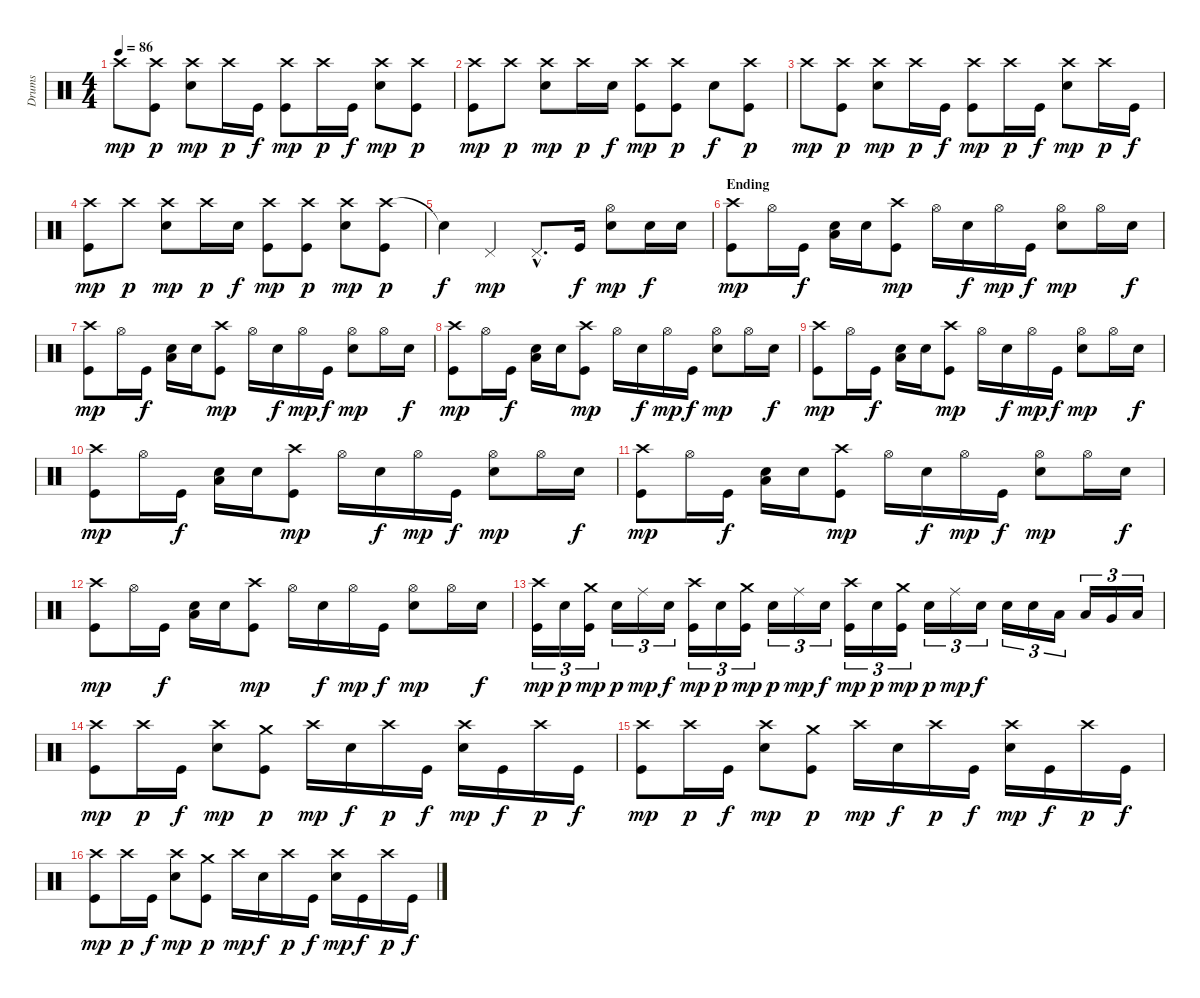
\track ("Drums" "Drums") {instrument percussion}
\staff {score}
\articulation defaults
\ts (4 4)
\tempo 86
\clef neutral
\ks c "Crash high (hit)".8{dy mp}
("Crash high (hit)" "Kick (hit)").8{dy p} ("Crash high (hit)" "Electric Snare (hit)").8{dy mp} "Crash high (hit)".16{dy p} "Kick (hit)".16{dy f} ("Crash high (hit)" "Kick (hit)").8{dy mp} "Crash high (hit)".16{dy p} "Kick (hit)".16{dy f} ("Crash high (hit)" "Electric Snare (hit)").8{dy mp} ("Crash high (hit)" "Kick (hit)").8{dy p} |
("Crash high (hit)" "Kick (hit)").8{dy mp} "Crash high (hit)".8{dy p} ("Crash high (hit)" "Electric Snare (hit)").8{dy mp} "Crash high (hit)".16{dy p} "Electric Snare (hit)".16{dy f} ("Crash high (hit)" "Kick (hit)").8{dy mp} ("Crash high (hit)" "Kick (hit)").8{dy p} "Electric Snare (hit)".8{dy f} ("Crash high (hit)" "Kick (hit)").8{dy p} |
"Crash high (hit)".8{dy mp} ("Crash high (hit)" "Kick (hit)").8{dy p} ("Crash high (hit)" "Electric Snare (hit)").8{dy mp} "Crash high (hit)".16{dy p} "Kick (hit)".16{dy f} ("Crash high (hit)" "Kick (hit)").8{dy mp} "Crash high (hit)".16{dy p} "Kick (hit)".16{dy f} ("Crash high (hit)" "Electric Snare (hit)").8{dy mp} "Crash high (hit)".16{dy p} "Kick (hit)".16{dy f} |
("Crash high (hit)" "Kick (hit)").8{dy mp} "Crash high (hit)".8{dy p} ("Crash high (hit)" "Electric Snare (hit)").8{dy mp} "Crash high (hit)".16{dy p} "Electric Snare (hit)".16{dy f} ("Crash high (hit)" "Kick (hit)").8{dy mp} ("Crash high (hit)" "Kick (hit)").8{dy p} ("Crash high (hit)" "Electric Snare (hit)").8{dy mp} ("Crash high (hit)" "Kick (hit)").8{dy p} |
"Snare (hit)"{t}.4{dy f} "Pedal Hi-Hat (hit)".4{dy mp} "Pedal Hi-Hat (hit)"{hac}.8{d} "Kick (hit)".16{dy f} ("Hi-Hat (open)" "Electric Snare (hit)").8{dy mp} "Electric Snare (hit)".16{dy f} "Electric Snare (hit)".16 |
\section ("" "Ending")
("Crash high (hit)" "Kick (hit)").8{dy mp} "Hi-Hat (open)".16 "Kick (hit)".16{dy f} ("Electric Snare (hit)" "Low Floor Tom (hit)").16 "Electric Snare (hit)".16 ("Crash high (hit)" "Kick (hit)").8{dy mp} "Hi-Hat (open)".16 "Electric Snare (hit)".16{dy f} "Hi-Hat (open)".16{dy mp} "Kick (hit)".16{dy f} ("Hi-Hat (open)" "Electric Snare (hit)").8{dy mp} "Hi-Hat (open)".16 "Electric Snare (hit)".16{dy f} |
("Crash high (hit)" "Kick (hit)").8{dy mp} "Hi-Hat (open)".16 "Kick (hit)".16{dy f} ("Electric Snare (hit)" "Low Floor Tom (hit)").16 "Electric Snare (hit)".16 ("Crash high (hit)" "Kick (hit)").8{dy mp} "Hi-Hat (open)".16 "Electric Snare (hit)".16{dy f} "Hi-Hat (open)".16{dy mp} "Kick (hit)".16{dy f} ("Hi-Hat (open)" "Electric Snare (hit)").8{dy mp} "Hi-Hat (open)".16 "Electric Snare (hit)".16{dy f} |
("Crash high (hit)" "Kick (hit)").8{dy mp} "Hi-Hat (open)".16 "Kick (hit)".16{dy f} ("Electric Snare (hit)" "Low Floor Tom (hit)").16 "Electric Snare (hit)".16 ("Crash high (hit)" "Kick (hit)").8{dy mp} "Hi-Hat (open)".16 "Electric Snare (hit)".16{dy f} "Hi-Hat (open)".16{dy mp} "Kick (hit)".16{dy f} ("Hi-Hat (open)" "Electric Snare (hit)").8{dy mp} "Hi-Hat (open)".16 "Electric Snare (hit)".16{dy f} |
("Crash high (hit)" "Kick (hit)").8{dy mp} "Hi-Hat (open)".16 "Kick (hit)".16{dy f} ("Electric Snare (hit)" "Low Floor Tom (hit)").16 "Electric Snare (hit)".16 ("Crash high (hit)" "Kick (hit)").8{dy mp} "Hi-Hat (open)".16 "Electric Snare (hit)".16{dy f} "Hi-Hat (open)".16{dy mp} "Kick (hit)".16{dy f} ("Hi-Hat (open)" "Electric Snare (hit)").8{dy mp} "Hi-Hat (open)".16 "Electric Snare (hit)".16{dy f} |
("Crash high (hit)" "Kick (hit)").8{dy mp} "Hi-Hat (open)".16 "Kick (hit)".16{dy f} ("Electric Snare (hit)" "Low Floor Tom (hit)").16 "Electric Snare (hit)".16 ("Crash high (hit)" "Kick (hit)").8{dy mp} "Hi-Hat (open)".16 "Electric Snare (hit)".16{dy f} "Hi-Hat (open)".16{dy mp} "Kick (hit)".16{dy f} ("Hi-Hat (open)" "Electric Snare (hit)").8{dy mp} "Hi-Hat (open)".16 "Electric Snare (hit)".16{dy f} |
("Crash high (hit)" "Kick (hit)").8{dy mp} "Hi-Hat (open)".16 "Kick (hit)".16{dy f} ("Electric Snare (hit)" "Low Floor Tom (hit)").16 "Electric Snare (hit)".16 ("Crash high (hit)" "Kick (hit)").8{dy mp} "Hi-Hat (open)".16 "Electric Snare (hit)".16{dy f} "Hi-Hat (open)".16{dy mp} "Kick (hit)".16{dy f} ("Hi-Hat (open)" "Electric Snare (hit)").8{dy mp} "Hi-Hat (open)".16 "Electric Snare (hit)".16{dy f} |
("Crash high (hit)" "Kick (hit)").8{dy mp} "Hi-Hat (open)".16 "Kick (hit)".16{dy f} ("Electric Snare (hit)" "Low Floor Tom (hit)").16 "Electric Snare (hit)".16 ("Crash high (hit)" "Kick (hit)").8{dy mp} "Hi-Hat (open)".16 "Electric Snare (hit)".16{dy f} "Hi-Hat (open)".16{dy mp} "Kick (hit)".16{dy f} ("Hi-Hat (open)" "Electric Snare (hit)").8{dy mp} "Hi-Hat (open)".16 "Electric Snare (hit)".16{dy f} |
("Crash high (hit)" "Kick (hit)").16{tu (3 2) dy mp} "Electric Snare (hit)".16{tu (3 2) dy p} ("Crash medium (hit)" "Kick (hit)").16{tu (3 2) dy mp} "Electric Snare (hit)".16{tu (3 2) dy p} "Ride (middle)".16{tu (3 2) dy mp} "Electric Snare (hit)".16{tu (3 2) dy f} ("Crash high (hit)" "Kick (hit)").16{tu (3 2) dy mp} "Electric Snare (hit)".16{tu (3 2) dy p} ("Crash medium (hit)" "Kick (hit)").16{tu (3 2) dy mp} "Electric Snare (hit)".16{tu (3 2) dy p} "Ride (middle)".16{tu (3 2) dy mp} "Electric Snare (hit)".16{tu (3 2) dy f} ("Crash high (hit)" "Kick (hit)").16{tu (3 2) dy mp} "Electric Snare (hit)".16{tu (3 2) dy p} ("Crash medium (hit)" "Kick (hit)").16{tu (3 2) dy mp} "Electric Snare (hit)".16{tu (3 2) dy p} "Ride (middle)".16{tu (3 2) dy mp} "Electric Snare (hit)".16{tu (3 2) dy f} "Electric Snare (hit)".16{tu (3 2)} "Electric Snare (hit)".16{tu (3 2)} "Low Tom (hit)".16{tu (3 2)} "Low Tom (hit)".16{tu (3 2)} "Very Low Tom (hit)".16{tu (3 2)} "Low Floor Tom (hit)".16{tu (3 2)} |
("Crash high (hit)" "Kick (hit)").8{dy mp} "Crash high (hit)".16{dy p} "Kick (hit)".16{dy f} ("Crash high (hit)" "Electric Snare (hit)").8{dy mp} ("Crash medium (hit)" "Kick (hit)").8{dy p} "Crash high (hit)".16{dy mp} "Electric Snare (hit)".16{dy f} "Crash high (hit)".16{dy p} "Kick (hit)".16{dy f} ("Crash high (hit)" "Electric Snare (hit)").16{dy mp} "Kick (hit)".16{dy f} "Crash high (hit)".16{dy p} "Kick (hit)".16{dy f} |
("Crash high (hit)" "Kick (hit)").8{dy mp} "Crash high (hit)".16{dy p} "Kick (hit)".16{dy f} ("Crash high (hit)" "Electric Snare (hit)").8{dy mp} ("Crash medium (hit)" "Kick (hit)").8{dy p} "Crash high (hit)".16{dy mp} "Electric Snare (hit)".16{dy f} "Crash high (hit)".16{dy p} "Kick (hit)".16{dy f} ("Crash high (hit)" "Electric Snare (hit)").16{dy mp} "Kick (hit)".16{dy f} "Crash high (hit)".16{dy p} "Kick (hit)".16{dy f} |
("Crash high (hit)" "Kick (hit)").8{dy mp} "Crash high (hit)".16{dy p} "Kick (hit)".16{dy f} ("Crash high (hit)" "Electric Snare (hit)").8{dy mp} ("Crash medium (hit)" "Kick (hit)").8{dy p} "Crash high (hit)".16{dy mp} "Electric Snare (hit)".16{dy f} "Crash high (hit)".16{dy p} "Kick (hit)".16{dy f} ("Crash high (hit)" "Electric Snare (hit)").16{dy mp} "Kick (hit)".16{dy f} "Crash high (hit)".16{dy p} "Kick (hit)".16{dy f}
